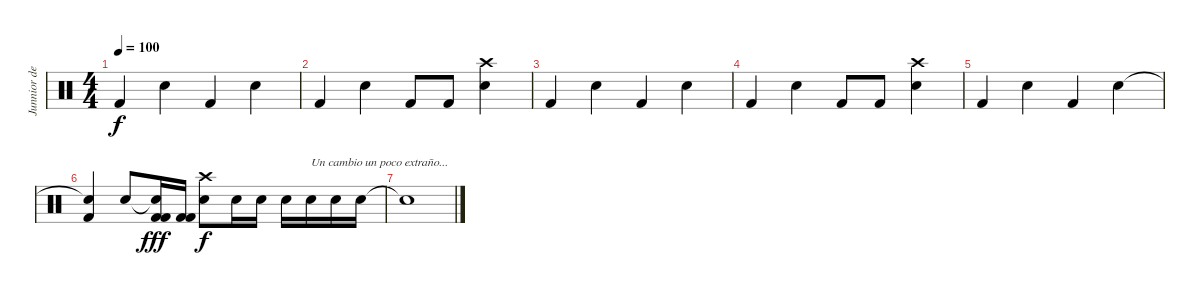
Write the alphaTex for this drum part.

\track ("Junnior de Jesus" "Junnior de") {instrument percussion}
\staff {score}
\articulation defaults
\ts (4 4)
\tempo 100
\clef neutral
\ks c "Kick (hit) 2".4{dy f} "Snare (hit) 2".4 "Kick (hit) 2".4 "Snare (hit) 2".4
|
"Kick (hit) 2".4 "Snare (hit) 2".4 "Kick (hit) 2".8 "Kick (hit) 2".8 ("Snare (hit) 2" "Crash high (hit)").4 |
"Kick (hit) 2".4 "Snare (hit) 2".4 "Kick (hit) 2".4 "Snare (hit) 2".4 |
"Kick (hit) 2".4 "Snare (hit) 2".4 "Kick (hit) 2".8 "Kick (hit) 2".8 ("Snare (hit) 2" "Crash high (hit)").4 |
"Kick (hit) 2".4 "Snare (hit) 2".4 "Kick (hit) 2".4 "Snare (hit) 2".4 |
("Snare (hit)"{t} "Kick (hit) 2").4 "Snare (hit) 2".8 ("Snare (hit)"{t} "Kick (hit) 2" "Kick (hit) 2").16{dy fff} ("Kick (hit) 2" "Kick (hit) 2").16 ("Crash high (hit)" "Electric Snare (hit)").8{dy f} "Electric Snare (hit)".16 "Electric Snare (hit)".16 "Electric Snare (hit)".16 "Electric Snare (hit)".16{txt "Un cambio un poco extraño..."} "Electric Snare (hit)".16 "Electric Snare (hit)".16 |
"Snare (hit)"{t}.1
